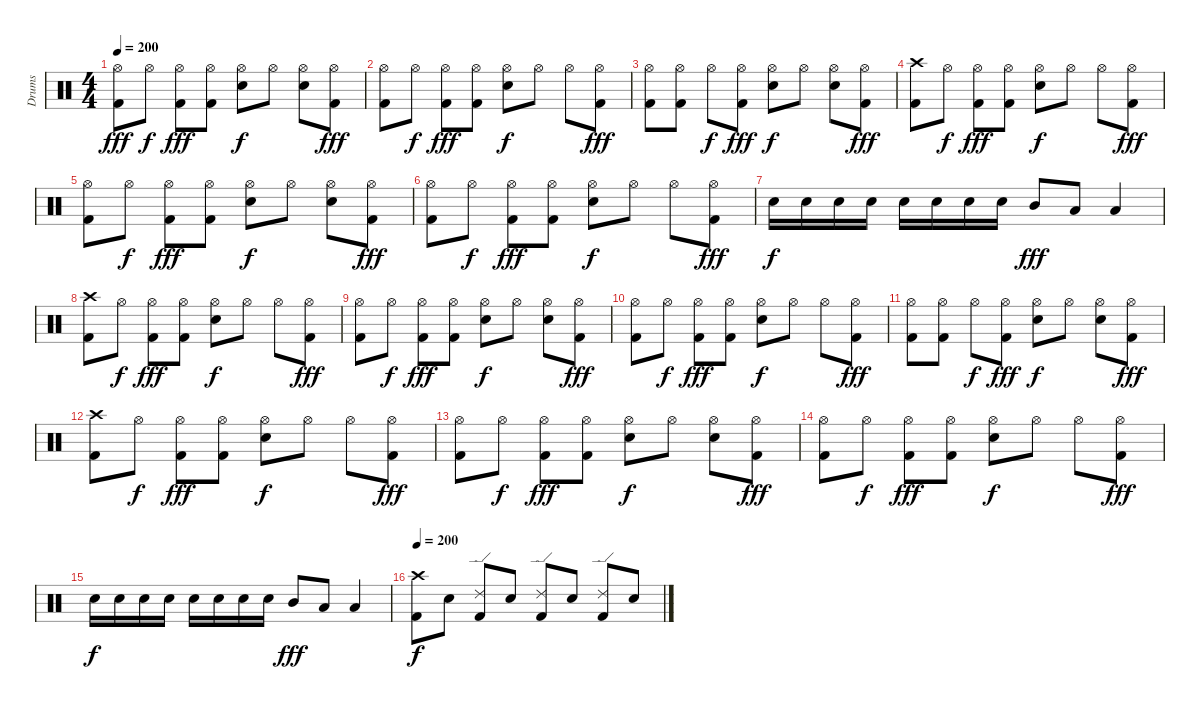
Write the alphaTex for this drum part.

\track ("Drums" "Drums") {instrument percussion}
\staff {score}
\articulation defaults
\ts (4 4)
\tempo 200
\clef neutral
\ks c
("Hi-Hat (open)" "Kick (hit) 2").8{dy fff} "Hi-Hat (open)".8{dy f} ("Hi-Hat (open)" "Kick (hit) 2").8{dy fff} ("Hi-Hat (open)" "Kick (hit) 2").8 ("Hi-Hat (open)" "Electric Snare (hit)").8{dy f} "Hi-Hat (open)".8 ("Hi-Hat (open)" "Electric Snare (hit)").8 ("Hi-Hat (open)" "Kick (hit) 2").8{dy fff} |
("Hi-Hat (open)" "Kick (hit) 2").8 "Hi-Hat (open)".8{dy f} ("Hi-Hat (open)" "Kick (hit) 2").8{dy fff} ("Hi-Hat (open)" "Kick (hit) 2").8 ("Hi-Hat (open)" "Electric Snare (hit)").8{dy f} "Hi-Hat (open)".8 "Hi-Hat (open)".8 ("Hi-Hat (open)" "Kick (hit) 2").8{dy fff} |
("Hi-Hat (open)" "Kick (hit) 2").8 ("Hi-Hat (open)" "Kick (hit) 2").8 "Hi-Hat (open)".8{dy f} ("Hi-Hat (open)" "Kick (hit) 2").8{dy fff} ("Hi-Hat (open)" "Electric Snare (hit)").8{dy f} "Hi-Hat (open)".8 ("Hi-Hat (open)" "Electric Snare (hit)").8 ("Hi-Hat (open)" "Kick (hit) 2").8{dy fff} |
("Crash high (hit)" "Kick (hit) 2").8 "Hi-Hat (open)".8{dy f} ("Hi-Hat (open)" "Kick (hit) 2").8{dy fff} ("Hi-Hat (open)" "Kick (hit) 2").8 ("Hi-Hat (open)" "Electric Snare (hit)").8{dy f} "Hi-Hat (open)".8 "Hi-Hat (open)".8 ("Hi-Hat (open)" "Kick (hit) 2").8{dy fff} |
("Hi-Hat (open)" "Kick (hit) 2").8 "Hi-Hat (open)".8{dy f} ("Hi-Hat (open)" "Kick (hit) 2").8{dy fff} ("Hi-Hat (open)" "Kick (hit) 2").8 ("Hi-Hat (open)" "Electric Snare (hit)").8{dy f} "Hi-Hat (open)".8 ("Hi-Hat (open)" "Electric Snare (hit)").8 ("Hi-Hat (open)" "Kick (hit) 2").8{dy fff} |
("Hi-Hat (open)" "Kick (hit) 2").8 "Hi-Hat (open)".8{dy f} ("Hi-Hat (open)" "Kick (hit) 2").8{dy fff} ("Hi-Hat (open)" "Kick (hit) 2").8 ("Hi-Hat (open)" "Electric Snare (hit)").8{dy f} "Hi-Hat (open)".8 "Hi-Hat (open)".8 ("Hi-Hat (open)" "Kick (hit) 2").8{dy fff} |
"Electric Snare (hit)".16{dy f} "Electric Snare (hit)".16 "Electric Snare (hit)".16 "Electric Snare (hit)".16 "Electric Snare (hit)".16 "Electric Snare (hit)".16 "Electric Snare (hit)".16 "Electric Snare (hit)".16 "Mid Tom (hit)".8{dy fff} "Low Tom (hit)".8 "Low Tom (hit)".4 |
("Crash high (hit)" "Kick (hit) 2").8 "Hi-Hat (open)".8{dy f} ("Hi-Hat (open)" "Kick (hit) 2").8{dy fff} ("Hi-Hat (open)" "Kick (hit) 2").8 ("Hi-Hat (open)" "Electric Snare (hit)").8{dy f} "Hi-Hat (open)".8 "Hi-Hat (open)".8 ("Hi-Hat (open)" "Kick (hit) 2").8{dy fff} |
("Hi-Hat (open)" "Kick (hit) 2").8 "Hi-Hat (open)".8{dy f} ("Hi-Hat (open)" "Kick (hit) 2").8{dy fff} ("Hi-Hat (open)" "Kick (hit) 2").8 ("Hi-Hat (open)" "Electric Snare (hit)").8{dy f} "Hi-Hat (open)".8 ("Hi-Hat (open)" "Electric Snare (hit)").8 ("Hi-Hat (open)" "Kick (hit) 2").8{dy fff} |
("Hi-Hat (open)" "Kick (hit) 2").8 "Hi-Hat (open)".8{dy f} ("Hi-Hat (open)" "Kick (hit) 2").8{dy fff} ("Hi-Hat (open)" "Kick (hit) 2").8 ("Hi-Hat (open)" "Electric Snare (hit)").8{dy f} "Hi-Hat (open)".8 "Hi-Hat (open)".8 ("Hi-Hat (open)" "Kick (hit) 2").8{dy fff} |
("Hi-Hat (open)" "Kick (hit) 2").8 ("Hi-Hat (open)" "Kick (hit) 2").8 "Hi-Hat (open)".8{dy f} ("Hi-Hat (open)" "Kick (hit) 2").8{dy fff} ("Hi-Hat (open)" "Electric Snare (hit)").8{dy f} "Hi-Hat (open)".8 ("Hi-Hat (open)" "Electric Snare (hit)").8 ("Hi-Hat (open)" "Kick (hit) 2").8{dy fff} |
("Crash high (hit)" "Kick (hit) 2").8 "Hi-Hat (open)".8{dy f} ("Hi-Hat (open)" "Kick (hit) 2").8{dy fff} ("Hi-Hat (open)" "Kick (hit) 2").8 ("Hi-Hat (open)" "Electric Snare (hit)").8{dy f} "Hi-Hat (open)".8 "Hi-Hat (open)".8 ("Hi-Hat (open)" "Kick (hit) 2").8{dy fff} |
("Hi-Hat (open)" "Kick (hit) 2").8 "Hi-Hat (open)".8{dy f} ("Hi-Hat (open)" "Kick (hit) 2").8{dy fff} ("Hi-Hat (open)" "Kick (hit) 2").8 ("Hi-Hat (open)" "Electric Snare (hit)").8{dy f} "Hi-Hat (open)".8 ("Hi-Hat (open)" "Electric Snare (hit)").8 ("Hi-Hat (open)" "Kick (hit) 2").8{dy fff} |
("Hi-Hat (open)" "Kick (hit) 2").8 "Hi-Hat (open)".8{dy f} ("Hi-Hat (open)" "Kick (hit) 2").8{dy fff} ("Hi-Hat (open)" "Kick (hit) 2").8 ("Hi-Hat (open)" "Electric Snare (hit)").8{dy f} "Hi-Hat (open)".8 "Hi-Hat (open)".8 ("Hi-Hat (open)" "Kick (hit) 2").8{dy fff} |
"Electric Snare (hit)".16{dy f} "Electric Snare (hit)".16 "Electric Snare (hit)".16 "Electric Snare (hit)".16 "Electric Snare (hit)".16 "Electric Snare (hit)".16 "Electric Snare (hit)".16 "Electric Snare (hit)".16 "Mid Tom (hit)".8{dy fff} "Low Tom (hit)".8 "Low Tom (hit)".4 |
\tempo 200
("Crash high (hit)" "Kick (hit) 2").8{dy f} "Electric Snare (hit)".8 ("Ride (edge) 2" "Kick (hit) 2").8 "Electric Snare (hit)".8 ("Ride (edge) 2" "Kick (hit) 2").8 "Electric Snare (hit)".8 ("Ride (edge) 2" "Kick (hit) 2").8 "Electric Snare (hit)".8
